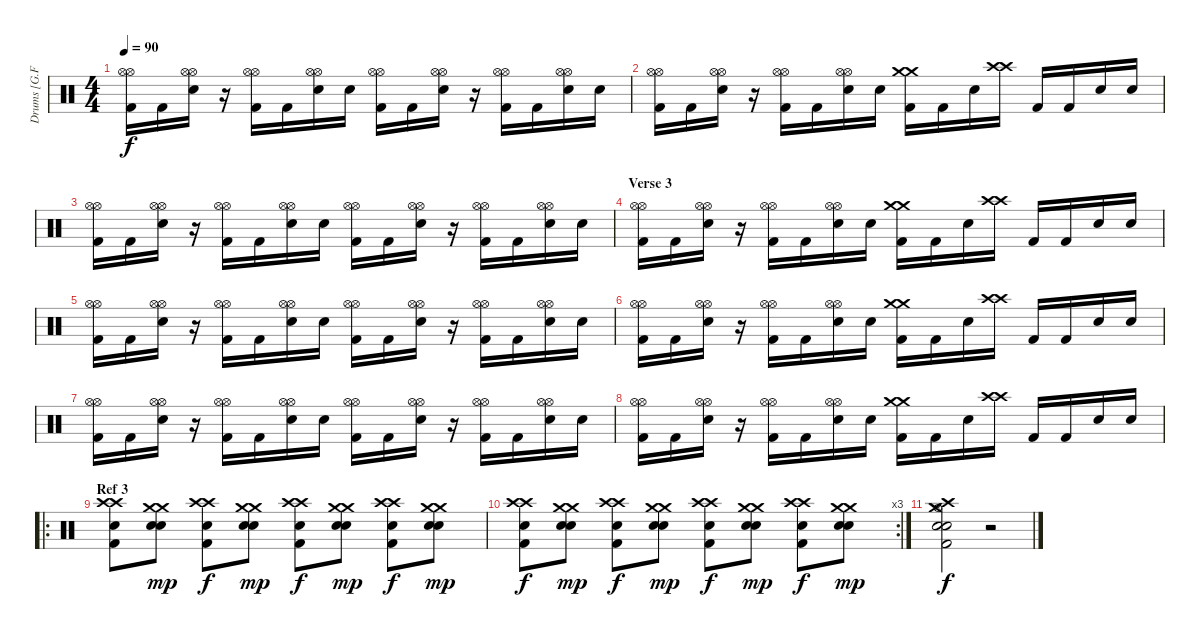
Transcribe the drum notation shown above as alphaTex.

\track ("Drums [G.Fish]" "Drums [G.F") {instrument percussion}
\staff {score}
\articulation defaults
\ts (4 4)
\tempo 90
\clef neutral
\ks c
("Hi-Hat (open)" "Hi-Hat (open)" "Kick (hit) 2").16{dy f} "Kick (hit) 2".16 ("Hi-Hat (open)" "Hi-Hat (open)" "Snare (hit) 2").16 r.16 ("Hi-Hat (open)" "Hi-Hat (open)" "Kick (hit) 2").16 "Kick (hit) 2".16 ("Hi-Hat (open)" "Hi-Hat (open)" "Snare (hit) 2").16 "Snare (hit) 2".16 ("Hi-Hat (open)" "Hi-Hat (open)" "Kick (hit) 2").16 "Kick (hit) 2".16 ("Hi-Hat (open)" "Hi-Hat (open)" "Snare (hit) 2").16 r.16 ("Hi-Hat (open)" "Hi-Hat (open)" "Kick (hit) 2").16 "Kick (hit) 2".16 ("Hi-Hat (open)" "Hi-Hat (open)" "Snare (hit) 2").16 "Snare (hit) 2".16 |
("Hi-Hat (open)" "Hi-Hat (open)" "Kick (hit) 2").16 "Kick (hit) 2".16 ("Hi-Hat (open)" "Hi-Hat (open)" "Snare (hit) 2").16 r.16 ("Hi-Hat (open)" "Hi-Hat (open)" "Kick (hit) 2").16 "Kick (hit) 2".16 ("Hi-Hat (open)" "Hi-Hat (open)" "Snare (hit) 2").16 "Snare (hit) 2".16 ("Crash medium (hit)" "Crash medium (hit)" "Kick (hit) 2").16 "Kick (hit) 2".16 "Snare (hit) 2".16 ("Crash high (hit)" "Crash high (hit)").16 "Kick (hit) 2".16 "Kick (hit) 2".16 "Snare (hit) 2".16 "Snare (hit) 2".16 |
("Hi-Hat (open)" "Hi-Hat (open)" "Kick (hit) 2").16 "Kick (hit) 2".16 ("Hi-Hat (open)" "Hi-Hat (open)" "Snare (hit) 2").16 r.16 ("Hi-Hat (open)" "Hi-Hat (open)" "Kick (hit) 2").16 "Kick (hit) 2".16 ("Hi-Hat (open)" "Hi-Hat (open)" "Snare (hit) 2").16 "Snare (hit) 2".16 ("Hi-Hat (open)" "Hi-Hat (open)" "Kick (hit) 2").16 "Kick (hit) 2".16 ("Hi-Hat (open)" "Hi-Hat (open)" "Snare (hit) 2").16 r.16 ("Hi-Hat (open)" "Hi-Hat (open)" "Kick (hit) 2").16 "Kick (hit) 2".16 ("Hi-Hat (open)" "Hi-Hat (open)" "Snare (hit) 2").16 "Snare (hit) 2".16 |
\section ("" "Verse 3")
("Hi-Hat (open)" "Hi-Hat (open)" "Kick (hit) 2").16 "Kick (hit) 2".16 ("Hi-Hat (open)" "Hi-Hat (open)" "Snare (hit) 2").16 r.16 ("Hi-Hat (open)" "Hi-Hat (open)" "Kick (hit) 2").16 "Kick (hit) 2".16 ("Hi-Hat (open)" "Hi-Hat (open)" "Snare (hit) 2").16 "Snare (hit) 2".16 ("Crash medium (hit)" "Crash medium (hit)" "Kick (hit) 2").16 "Kick (hit) 2".16 "Snare (hit) 2".16 ("Crash high (hit)" "Crash high (hit)").16 "Kick (hit) 2".16 "Kick (hit) 2".16 "Snare (hit) 2".16 "Snare (hit) 2".16 |
("Hi-Hat (open)" "Hi-Hat (open)" "Kick (hit) 2").16 "Kick (hit) 2".16 ("Hi-Hat (open)" "Hi-Hat (open)" "Snare (hit) 2").16 r.16 ("Hi-Hat (open)" "Hi-Hat (open)" "Kick (hit) 2").16 "Kick (hit) 2".16 ("Hi-Hat (open)" "Hi-Hat (open)" "Snare (hit) 2").16 "Snare (hit) 2".16 ("Hi-Hat (open)" "Hi-Hat (open)" "Kick (hit) 2").16 "Kick (hit) 2".16 ("Hi-Hat (open)" "Hi-Hat (open)" "Snare (hit) 2").16 r.16 ("Hi-Hat (open)" "Hi-Hat (open)" "Kick (hit) 2").16 "Kick (hit) 2".16 ("Hi-Hat (open)" "Hi-Hat (open)" "Snare (hit) 2").16 "Snare (hit) 2".16 |
("Hi-Hat (open)" "Hi-Hat (open)" "Kick (hit) 2").16 "Kick (hit) 2".16 ("Hi-Hat (open)" "Hi-Hat (open)" "Snare (hit) 2").16 r.16 ("Hi-Hat (open)" "Hi-Hat (open)" "Kick (hit) 2").16 "Kick (hit) 2".16 ("Hi-Hat (open)" "Hi-Hat (open)" "Snare (hit) 2").16 "Snare (hit) 2".16 ("Crash medium (hit)" "Crash medium (hit)" "Kick (hit) 2").16 "Kick (hit) 2".16 "Snare (hit) 2".16 ("Crash high (hit)" "Crash high (hit)").16 "Kick (hit) 2".16 "Kick (hit) 2".16 "Snare (hit) 2".16 "Snare (hit) 2".16 |
("Hi-Hat (open)" "Hi-Hat (open)" "Kick (hit) 2").16 "Kick (hit) 2".16 ("Hi-Hat (open)" "Hi-Hat (open)" "Snare (hit) 2").16 r.16 ("Hi-Hat (open)" "Hi-Hat (open)" "Kick (hit) 2").16 "Kick (hit) 2".16 ("Hi-Hat (open)" "Hi-Hat (open)" "Snare (hit) 2").16 "Snare (hit) 2".16 ("Hi-Hat (open)" "Hi-Hat (open)" "Kick (hit) 2").16 "Kick (hit) 2".16 ("Hi-Hat (open)" "Hi-Hat (open)" "Snare (hit) 2").16 r.16 ("Hi-Hat (open)" "Hi-Hat (open)" "Kick (hit) 2").16 "Kick (hit) 2".16 ("Hi-Hat (open)" "Hi-Hat (open)" "Snare (hit) 2").16 "Snare (hit) 2".16 |
("Hi-Hat (open)" "Hi-Hat (open)" "Kick (hit) 2").16 "Kick (hit) 2".16 ("Hi-Hat (open)" "Hi-Hat (open)" "Snare (hit) 2").16 r.16 ("Hi-Hat (open)" "Hi-Hat (open)" "Kick (hit) 2").16 "Kick (hit) 2".16 ("Hi-Hat (open)" "Hi-Hat (open)" "Snare (hit) 2").16 "Snare (hit) 2".16 ("Crash medium (hit)" "Crash medium (hit)" "Kick (hit) 2").16 "Kick (hit) 2".16 "Snare (hit) 2".16 ("Crash high (hit)" "Crash high (hit)").16 "Kick (hit) 2".16 "Kick (hit) 2".16 "Snare (hit) 2".16 "Snare (hit) 2".16 |
\ro
\section ("" "Ref 3")
("Crash high (hit)" "Crash high (hit)" "Snare (hit) 2" "Kick (hit) 2").8 ("Crash medium (hit)" "Crash medium (hit)" "Snare (hit) 2" "Snare (hit) 2").8{dy mp} ("Crash high (hit)" "Crash high (hit)" "Snare (hit) 2" "Kick (hit) 2").8{dy f} ("Crash medium (hit)" "Crash medium (hit)" "Snare (hit) 2" "Snare (hit) 2").8{dy mp} ("Crash high (hit)" "Crash high (hit)" "Snare (hit) 2" "Kick (hit) 2").8{dy f} ("Crash medium (hit)" "Crash medium (hit)" "Snare (hit) 2" "Snare (hit) 2").8{dy mp} ("Crash high (hit)" "Crash high (hit)" "Snare (hit) 2" "Kick (hit) 2").8{dy f} ("Crash medium (hit)" "Crash medium (hit)" "Snare (hit) 2" "Snare (hit) 2").8{dy mp} |
\rc 3
("Crash high (hit)" "Crash high (hit)" "Snare (hit) 2" "Kick (hit) 2").8{dy f} ("Crash medium (hit)" "Crash medium (hit)" "Snare (hit) 2" "Snare (hit) 2").8{dy mp} ("Crash high (hit)" "Crash high (hit)" "Snare (hit) 2" "Kick (hit) 2").8{dy f} ("Crash medium (hit)" "Crash medium (hit)" "Snare (hit) 2" "Snare (hit) 2").8{dy mp} ("Crash high (hit)" "Crash high (hit)" "Snare (hit) 2" "Kick (hit) 2").8{dy f} ("Crash medium (hit)" "Crash medium (hit)" "Snare (hit) 2" "Snare (hit) 2").8{dy mp} ("Crash high (hit)" "Crash high (hit)" "Snare (hit) 2" "Kick (hit) 2").8{dy f} ("Crash medium (hit)" "Crash medium (hit)" "Snare (hit) 2" "Snare (hit) 2").8{dy mp} |
("Crash medium (hit)" "Snare (hit) 2" "Crash high (hit)" "Snare (hit) 2" "Hi-Hat (open)" "Kick (hit) 2").2{dy f} r.2
